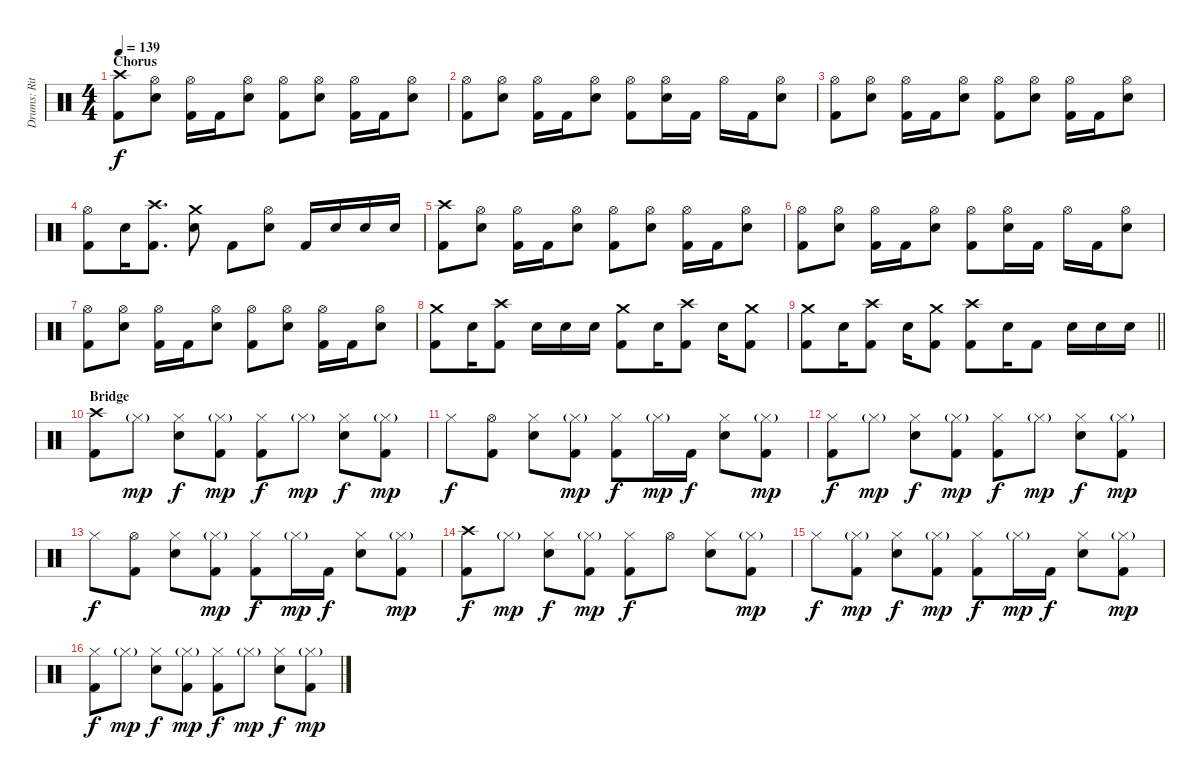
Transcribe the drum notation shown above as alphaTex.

\track ("Drums: Ritsu Tainaka" "Drums: Rit") {instrument percussion}
\staff {score}
\articulation defaults
\ts (4 4)
\section ("" "Chorus")
\tempo 139
\clef neutral
\ks c
("Crash high (hit)" "Kick (hit) 2").8{dy f volume 16} ("Hi-Hat (open)" "Electric Snare (hit)").8 ("Hi-Hat (open)" "Kick (hit) 2").16 "Kick (hit) 2".16 ("Hi-Hat (open)" "Electric Snare (hit)").8 ("Hi-Hat (open)" "Kick (hit) 2").8 ("Hi-Hat (open)" "Electric Snare (hit)").8 ("Hi-Hat (open)" "Kick (hit) 2").16 "Kick (hit) 2".16 ("Hi-Hat (open)" "Electric Snare (hit)").8 |
("Hi-Hat (open)" "Kick (hit) 2").8 ("Hi-Hat (open)" "Electric Snare (hit)").8 ("Hi-Hat (open)" "Kick (hit) 2").16 "Kick (hit) 2".16 ("Hi-Hat (open)" "Electric Snare (hit)").8 ("Hi-Hat (open)" "Kick (hit) 2").8 ("Hi-Hat (open)" "Electric Snare (hit)").16 "Kick (hit) 2".16 "Hi-Hat (open)".16 "Kick (hit) 2".16 ("Hi-Hat (open)" "Electric Snare (hit)").8 |
("Hi-Hat (open)" "Kick (hit) 2").8 ("Hi-Hat (open)" "Electric Snare (hit)").8 ("Hi-Hat (open)" "Kick (hit) 2").16 "Kick (hit) 2".16 ("Hi-Hat (open)" "Electric Snare (hit)").8 ("Hi-Hat (open)" "Kick (hit) 2").8 ("Hi-Hat (open)" "Electric Snare (hit)").8 ("Hi-Hat (open)" "Kick (hit) 2").16 "Kick (hit) 2".16 ("Hi-Hat (open)" "Electric Snare (hit)").8 |
("Hi-Hat (open)" "Kick (hit) 2").8 "Electric Snare (hit)".16 ("Crash high (hit)" "Kick (hit) 2").8{d} ("Crash medium (hit)" "Electric Snare (hit)").8 "Kick (hit) 2".8 ("Hi-Hat (open)" "Electric Snare (hit)").8 "Kick (hit) 2".16 "Electric Snare (hit)".16 "Electric Snare (hit)".16 "Electric Snare (hit)".16 |
("Crash high (hit)" "Kick (hit) 2").8 ("Hi-Hat (open)" "Electric Snare (hit)").8 ("Hi-Hat (open)" "Kick (hit) 2").16 "Kick (hit) 2".16 ("Hi-Hat (open)" "Electric Snare (hit)").8 ("Hi-Hat (open)" "Kick (hit) 2").8 ("Hi-Hat (open)" "Electric Snare (hit)").8 ("Hi-Hat (open)" "Kick (hit) 2").16 "Kick (hit) 2".16 ("Hi-Hat (open)" "Electric Snare (hit)").8 |
("Hi-Hat (open)" "Kick (hit) 2").8 ("Hi-Hat (open)" "Electric Snare (hit)").8 ("Hi-Hat (open)" "Kick (hit) 2").16 "Kick (hit) 2".16 ("Hi-Hat (open)" "Electric Snare (hit)").8 ("Hi-Hat (open)" "Kick (hit) 2").8 ("Hi-Hat (open)" "Electric Snare (hit)").16 "Kick (hit) 2".16 "Hi-Hat (open)".16 "Kick (hit) 2".16 ("Hi-Hat (open)" "Electric Snare (hit)").8 |
("Hi-Hat (open)" "Kick (hit) 2").8 ("Hi-Hat (open)" "Electric Snare (hit)").8 ("Hi-Hat (open)" "Kick (hit) 2").16 "Kick (hit) 2".16 ("Hi-Hat (open)" "Electric Snare (hit)").8 ("Hi-Hat (open)" "Kick (hit) 2").8 ("Hi-Hat (open)" "Electric Snare (hit)").8 ("Hi-Hat (open)" "Kick (hit) 2").16 "Kick (hit) 2".16 ("Hi-Hat (open)" "Electric Snare (hit)").8 |
("Crash medium (hit)" "Kick (hit) 2").8 "Electric Snare (hit)".16 ("Crash high (hit)" "Kick (hit) 2").8 "Electric Snare (hit)".16 "Electric Snare (hit)".16 "Electric Snare (hit)".16 ("Crash medium (hit)" "Kick (hit) 2").8 "Electric Snare (hit)".16 ("Crash high (hit)" "Kick (hit) 2").8 "Electric Snare (hit)".16 ("Crash medium (hit)" "Kick (hit) 2").8 |
\barLineRight lightlight
("Crash medium (hit)" "Kick (hit) 2").8 "Electric Snare (hit)".16 ("Crash high (hit)" "Kick (hit) 2").8 "Electric Snare (hit)".16 ("Crash medium (hit)" "Kick (hit) 2").8 ("Crash high (hit)" "Kick (hit) 2").8 "Electric Snare (hit)".16 "Kick (hit) 2".8 "Electric Snare (hit)".16 "Electric Snare (hit)".16 "Electric Snare (hit)".16 |
\section ("" "Bridge")
("Crash high (hit)" "Kick (hit) 2").8 "Hi-Hat (closed)"{g}.8{dy mp} ("Hi-Hat (closed)" "Electric Snare (hit)").8{dy f} ("Hi-Hat (closed)"{g} "Kick (hit) 2").8{dy mp} ("Hi-Hat (closed)" "Kick (hit) 2").8{dy f} "Hi-Hat (closed)"{g}.8{dy mp} ("Hi-Hat (closed)" "Electric Snare (hit)").8{dy f} ("Hi-Hat (closed)"{g} "Kick (hit) 2").8{dy mp} |
"Hi-Hat (closed)".8{dy f} ("Hi-Hat (open)" "Kick (hit) 2").8 ("Hi-Hat (closed)" "Electric Snare (hit)").8 ("Hi-Hat (closed)"{g} "Kick (hit) 2").8{dy mp} ("Hi-Hat (closed)" "Kick (hit) 2").8{dy f} "Hi-Hat (closed)"{g}.16{dy mp} "Kick (hit) 2".16{dy f} ("Hi-Hat (closed)" "Electric Snare (hit)").8 ("Hi-Hat (closed)"{g} "Kick (hit) 2").8{dy mp} |
("Hi-Hat (closed)" "Kick (hit) 2").8{dy f} "Hi-Hat (closed)"{g}.8{dy mp} ("Hi-Hat (closed)" "Electric Snare (hit)").8{dy f} ("Hi-Hat (closed)"{g} "Kick (hit) 2").8{dy mp} ("Hi-Hat (closed)" "Kick (hit) 2").8{dy f} "Hi-Hat (closed)"{g}.8{dy mp} ("Hi-Hat (closed)" "Electric Snare (hit)").8{dy f} ("Hi-Hat (closed)"{g} "Kick (hit) 2").8{dy mp} |
"Hi-Hat (closed)".8{dy f} ("Hi-Hat (open)" "Kick (hit) 2").8 ("Hi-Hat (closed)" "Electric Snare (hit)").8 ("Hi-Hat (closed)"{g} "Kick (hit) 2").8{dy mp} ("Hi-Hat (closed)" "Kick (hit) 2").8{dy f} "Hi-Hat (closed)"{g}.16{dy mp} "Kick (hit) 2".16{dy f} ("Hi-Hat (closed)" "Electric Snare (hit)").8 ("Hi-Hat (closed)"{g} "Kick (hit) 2").8{dy mp} |
("Crash high (hit)" "Kick (hit) 2").8{dy f} "Hi-Hat (closed)"{g}.8{dy mp} ("Hi-Hat (closed)" "Electric Snare (hit)").8{dy f} ("Hi-Hat (closed)"{g} "Kick (hit) 2").8{dy mp} ("Hi-Hat (closed)" "Kick (hit) 2").8{dy f} "Hi-Hat (open)".8 ("Hi-Hat (closed)" "Electric Snare (hit)").8 ("Hi-Hat (closed)"{g} "Kick (hit) 2").8{dy mp} |
"Hi-Hat (closed)".8{dy f} ("Hi-Hat (closed)"{g} "Kick (hit) 2").8{dy mp} ("Hi-Hat (closed)" "Electric Snare (hit)").8{dy f} ("Hi-Hat (closed)"{g} "Kick (hit) 2").8{dy mp} ("Hi-Hat (closed)" "Kick (hit) 2").8{dy f} "Hi-Hat (closed)"{g}.16{dy mp} "Kick (hit) 2".16{dy f} ("Hi-Hat (closed)" "Electric Snare (hit)").8 ("Hi-Hat (closed)"{g} "Kick (hit) 2").8{dy mp} |
("Hi-Hat (closed)" "Kick (hit) 2").8{dy f} "Hi-Hat (closed)"{g}.8{dy mp} ("Hi-Hat (closed)" "Electric Snare (hit)").8{dy f} ("Hi-Hat (closed)"{g} "Kick (hit) 2").8{dy mp} ("Hi-Hat (closed)" "Kick (hit) 2").8{dy f} "Hi-Hat (closed)"{g}.8{dy mp} ("Hi-Hat (closed)" "Electric Snare (hit)").8{dy f} ("Hi-Hat (closed)"{g} "Kick (hit) 2").8{dy mp}
